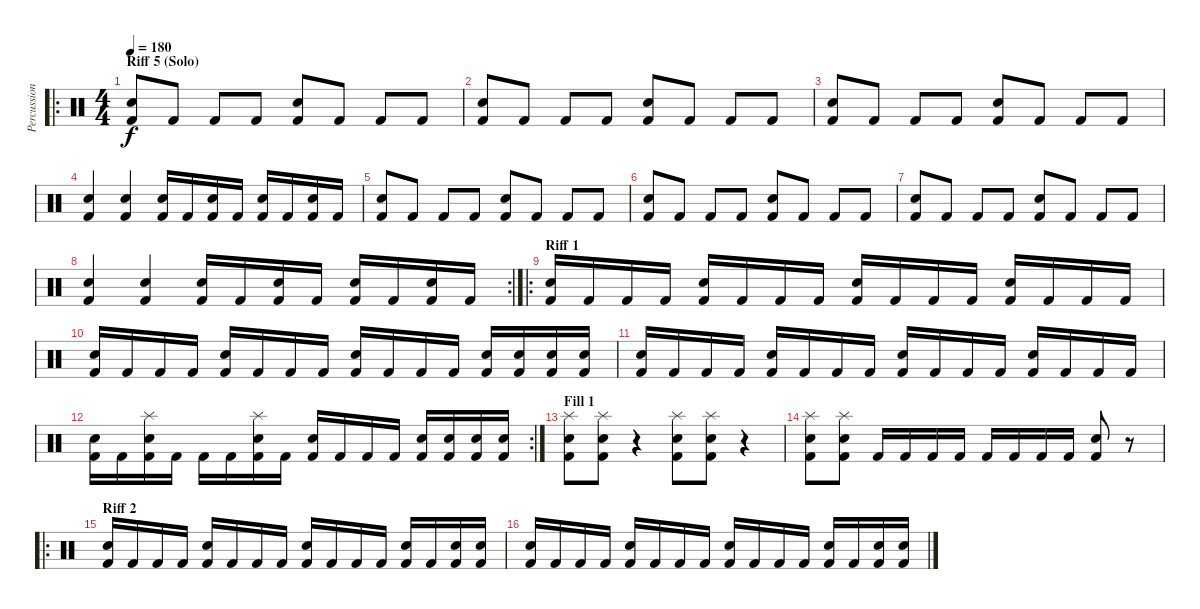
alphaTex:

\track ("Percussion" "Percussion") {instrument percussion}
\staff {score}
\articulation defaults
\ro
\ts (4 4)
\section ("" "Riff 5 (Solo)")
\tempo 180
\clef neutral
\ks c
("Electric Snare (hit)" "Kick (hit) 2").8{dy f} "Kick (hit) 2".8 "Kick (hit) 2".8 "Kick (hit) 2".8 ("Electric Snare (hit)" "Kick (hit) 2").8 "Kick (hit) 2".8 "Kick (hit) 2".8 "Kick (hit) 2".8 |
("Electric Snare (hit)" "Kick (hit) 2").8 "Kick (hit) 2".8 "Kick (hit) 2".8 "Kick (hit) 2".8 ("Electric Snare (hit)" "Kick (hit) 2").8 "Kick (hit) 2".8 "Kick (hit) 2".8 "Kick (hit) 2".8 |
("Electric Snare (hit)" "Kick (hit) 2").8 "Kick (hit) 2".8 "Kick (hit) 2".8 "Kick (hit) 2".8 ("Electric Snare (hit)" "Kick (hit) 2").8 "Kick (hit) 2".8 "Kick (hit) 2".8 "Kick (hit) 2".8 |
("Electric Snare (hit)" "Kick (hit) 2").4 ("Electric Snare (hit)" "Kick (hit) 2").4 ("Snare (hit) 2" "Kick (hit) 2").16 "Kick (hit) 2".16 ("Snare (hit) 2" "Kick (hit) 2").16 "Kick (hit) 2".16 ("Snare (hit) 2" "Kick (hit) 2").16 "Kick (hit) 2".16 ("Snare (hit) 2" "Kick (hit) 2").16 "Kick (hit) 2".16 |
("Electric Snare (hit)" "Kick (hit) 2").8 "Kick (hit) 2".8 "Kick (hit) 2".8 "Kick (hit) 2".8 ("Electric Snare (hit)" "Kick (hit) 2").8 "Kick (hit) 2".8 "Kick (hit) 2".8 "Kick (hit) 2".8 |
("Electric Snare (hit)" "Kick (hit) 2").8 "Kick (hit) 2".8 "Kick (hit) 2".8 "Kick (hit) 2".8 ("Electric Snare (hit)" "Kick (hit) 2").8 "Kick (hit) 2".8 "Kick (hit) 2".8 "Kick (hit) 2".8 |
("Electric Snare (hit)" "Kick (hit) 2").8 "Kick (hit) 2".8 "Kick (hit) 2".8 "Kick (hit) 2".8 ("Electric Snare (hit)" "Kick (hit) 2").8 "Kick (hit) 2".8 "Kick (hit) 2".8 "Kick (hit) 2".8 |
\rc 2
("Electric Snare (hit)" "Kick (hit) 2").4 ("Electric Snare (hit)" "Kick (hit) 2").4 ("Snare (hit) 2" "Kick (hit) 2").16 "Kick (hit) 2".16 ("Snare (hit) 2" "Kick (hit) 2").16 "Kick (hit) 2".16 ("Snare (hit) 2" "Kick (hit) 2").16 "Kick (hit) 2".16 ("Snare (hit) 2" "Kick (hit) 2").16 "Kick (hit) 2".16 |
\ro
\section ("" "Riff 1")
("Snare (hit) 2" "Kick (hit) 2").16 "Kick (hit) 2".16 "Kick (hit) 2".16 "Kick (hit) 2".16 ("Snare (hit) 2" "Kick (hit) 2").16 "Kick (hit) 2".16 "Kick (hit) 2".16 "Kick (hit) 2".16 ("Snare (hit) 2" "Kick (hit) 2").16 "Kick (hit) 2".16 "Kick (hit) 2".16 "Kick (hit) 2".16 ("Snare (hit) 2" "Kick (hit) 2").16 "Kick (hit) 2".16 "Kick (hit) 2".16 "Kick (hit) 2".16 |
("Snare (hit) 2" "Kick (hit) 2").16 "Kick (hit) 2".16 "Kick (hit) 2".16 "Kick (hit) 2".16 ("Snare (hit) 2" "Kick (hit) 2").16 "Kick (hit) 2".16 "Kick (hit) 2".16 "Kick (hit) 2".16 ("Snare (hit) 2" "Kick (hit) 2").16 "Kick (hit) 2".16 "Kick (hit) 2".16 "Kick (hit) 2".16 ("Snare (hit) 2" "Kick (hit) 2").16 ("Snare (hit) 2" "Kick (hit) 2").16 ("Snare (hit) 2" "Kick (hit) 2").16 ("Snare (hit) 2" "Kick (hit) 2").16 |
("Snare (hit) 2" "Kick (hit) 2").16 "Kick (hit) 2".16 "Kick (hit) 2".16 "Kick (hit) 2".16 ("Snare (hit) 2" "Kick (hit) 2").16 "Kick (hit) 2".16 "Kick (hit) 2".16 "Kick (hit) 2".16 ("Snare (hit) 2" "Kick (hit) 2").16 "Kick (hit) 2".16 "Kick (hit) 2".16 "Kick (hit) 2".16 ("Snare (hit) 2" "Kick (hit) 2").16 "Kick (hit) 2".16 "Kick (hit) 2".16 "Kick (hit) 2".16 |
\rc 2
("Snare (hit) 2" "Kick (hit) 2").16 "Kick (hit) 2".16 ("Snare (hit) 2" "Splash (hit)" "Kick (hit) 2").16 "Kick (hit) 2".16 "Kick (hit) 2".16 "Kick (hit) 2".16 ("Snare (hit) 2" "Splash (hit)" "Kick (hit) 2").16 "Kick (hit) 2".16 ("Snare (hit) 2" "Kick (hit) 2").16 "Kick (hit) 2".16 "Kick (hit) 2".16 "Kick (hit) 2".16 ("Snare (hit) 2" "Kick (hit) 2").16 ("Snare (hit) 2" "Kick (hit) 2").16 ("Snare (hit) 2" "Kick (hit) 2").16 ("Snare (hit) 2" "Kick (hit) 2").16 |
\section ("" "Fill 1")
("Snare (hit) 2" "Splash (hit)" "Kick (hit) 2").8 ("Snare (hit) 2" "Splash (hit)" "Kick (hit) 2").8 r.4 ("Snare (hit) 2" "Splash (hit)" "Kick (hit) 2").8 ("Snare (hit) 2" "Splash (hit)" "Kick (hit) 2").8 r.4 |
("Snare (hit) 2" "Splash (hit)" "Kick (hit) 2").8 ("Snare (hit) 2" "Splash (hit)" "Kick (hit) 2").8 "Kick (hit) 2".16 "Kick (hit) 2".16 "Kick (hit) 2".16 "Kick (hit) 2".16 "Kick (hit) 2".16 "Kick (hit) 2".16 "Kick (hit) 2".16 "Kick (hit) 2".16 ("Snare (hit) 2" "Kick (hit) 2").8 r.8 |
\ro
\section ("" "Riff 2")
("Snare (hit) 2" "Kick (hit) 2").16 "Kick (hit) 2".16 "Kick (hit) 2".16 "Kick (hit) 2".16 ("Snare (hit) 2" "Kick (hit) 2").16 "Kick (hit) 2".16 "Kick (hit) 2".16 "Kick (hit) 2".16 ("Snare (hit) 2" "Kick (hit) 2").16 "Kick (hit) 2".16 "Kick (hit) 2".16 "Kick (hit) 2".16 ("Snare (hit) 2" "Kick (hit) 2").16 "Kick (hit) 2".16 ("Snare (hit) 2" "Kick (hit) 2").16 ("Snare (hit) 2" "Kick (hit) 2").16 |
("Snare (hit) 2" "Kick (hit) 2").16 "Kick (hit) 2".16 "Kick (hit) 2".16 "Kick (hit) 2".16 ("Snare (hit) 2" "Kick (hit) 2").16 "Kick (hit) 2".16 "Kick (hit) 2".16 "Kick (hit) 2".16 ("Snare (hit) 2" "Kick (hit) 2").16 "Kick (hit) 2".16 "Kick (hit) 2".16 "Kick (hit) 2".16 ("Snare (hit) 2" "Kick (hit) 2").16 "Kick (hit) 2".16 ("Snare (hit) 2" "Kick (hit) 2").16 ("Snare (hit) 2" "Kick (hit) 2").16
